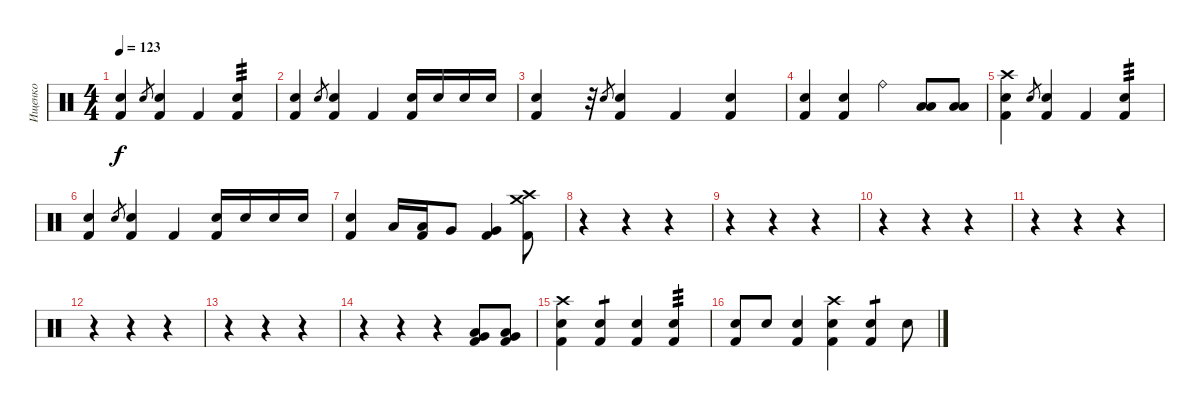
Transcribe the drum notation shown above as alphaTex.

\track ("Ищенко" "Ищенко") {instrument percussion}
\staff {score}
\articulation defaults
\ts (4 4)
\tempo 123
\clef neutral
\ks c
("Electric Snare (hit)" "Kick (hit) 2").4{dy f} "Electric Snare (hit)".8{gr} ("Electric Snare (hit)" "Kick (hit) 2").4 "Kick (hit) 2".4 ("Electric Snare (hit)" "Kick (hit) 2").4{tp 3} |
("Electric Snare (hit)" "Kick (hit) 2").4 "Electric Snare (hit)".8{gr} ("Electric Snare (hit)" "Kick (hit) 2").4 "Kick (hit) 2".4 ("Electric Snare (hit)" "Kick (hit) 2").16 "Electric Snare (hit)".16 "Electric Snare (hit)".16 "Electric Snare (hit)".16 |
("Electric Snare (hit)" "Kick (hit) 2").4 r.32 "Electric Snare (hit)".8{gr} ("Electric Snare (hit)" "Kick (hit) 2").4 "Kick (hit) 2".4 ("Electric Snare (hit)"{tr (40 32)} "Kick (hit) 2").4 |
("Electric Snare (hit)" "Kick (hit) 2").4 ("Electric Snare (hit)" "Kick (hit) 2").4 "Ride (bell)".4 ("Low Tom (hit)" "Low Floor Tom (hit)").8 ("Low Tom (hit)" "Low Floor Tom (hit)").8 |
("Electric Snare (hit)" "Kick (hit) 2" "Crash high (hit)").4 "Electric Snare (hit)".8{gr} ("Electric Snare (hit)" "Kick (hit) 2").4 "Kick (hit) 2".4 ("Electric Snare (hit)" "Kick (hit) 2").4{tp 3} |
("Electric Snare (hit)" "Kick (hit) 2").4 "Electric Snare (hit)".8{gr} ("Electric Snare (hit)" "Kick (hit) 2").4 "Kick (hit) 2".4 ("Electric Snare (hit)" "Kick (hit) 2").16 "Electric Snare (hit)".16 "Electric Snare (hit)".16 "Electric Snare (hit)".16 |
("Electric Snare (hit)" "Kick (hit) 2").4 "Low Tom (hit)".16 ("Low Tom (hit)" "Kick (hit) 2").16 "Very Low Tom (hit)".8 ("Very Low Tom (hit)" "Kick (hit) 2").4 ("Crash medium (hit)" "Crash high (hit)" "Kick (hit) 2").8 |
r.4 r.4 r.4 |
r.4 r.4 r.4 |
r.4 r.4 r.4 |
r.4 r.4 r.4 |
r.4 r.4 r.4 |
r.4 r.4 r.4 |
r.4 r.4 r.4 ("Low Floor Tom (hit)" "Very Low Tom (hit)" "Kick (hit) 2").8 ("Low Floor Tom (hit)" "Very Low Tom (hit)" "Kick (hit) 2").8 |
("Crash high (hit)" "Electric Snare (hit)" "Kick (hit) 2").4 ("Electric Snare (hit)" "Kick (hit) 2").4{tp 1} ("Electric Snare (hit)" "Kick (hit) 2").4 ("Electric Snare (hit)" "Kick (hit) 2").4{tp 3} |
("Electric Snare (hit)" "Kick (hit) 2").8 "Electric Snare (hit)".8 ("Electric Snare (hit)" "Kick (hit) 2").4 ("Crash high (hit)" "Electric Snare (hit)" "Kick (hit) 2").4 ("Electric Snare (hit)" "Kick (hit) 2").4{tp 1} "Electric Snare (hit)".8
